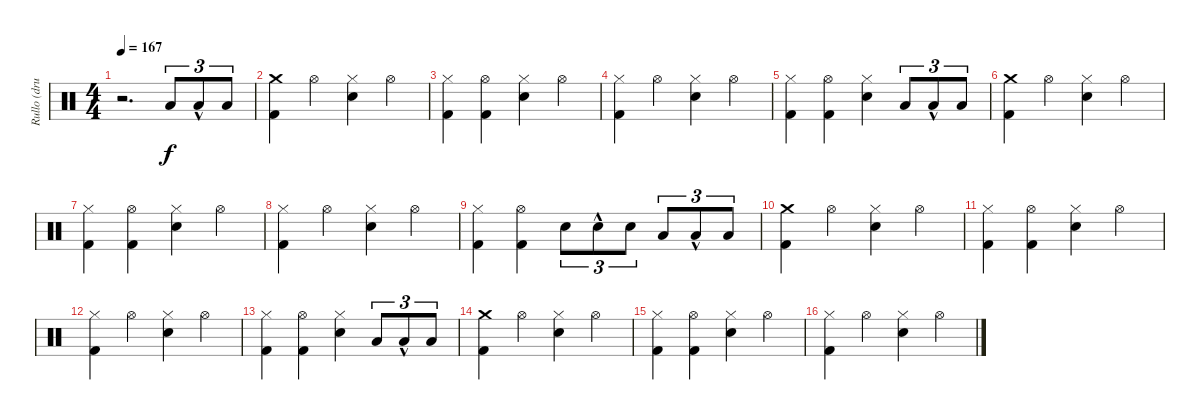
\track ("Rullo (drums)" "Rullo (dru") {instrument percussion}
\staff {score}
\articulation defaults
\ts (4 4)
\tempo 167
\clef neutral
\ks c
r.2{d dy f} "Low Tom (hit)".8{tu (3 2)} "Low Tom (hit)"{hac}.8{tu (3 2)} "Low Tom (hit)".8{tu (3 2)} |
("Crash medium (hit)" "Kick (hit) 2").4 "Hi-Hat (open)".4 ("Hi-Hat (closed)" "Electric Snare (hit)").4 "Hi-Hat (open)".4 |
("Hi-Hat (closed)" "Kick (hit) 2").4 ("Hi-Hat (open)" "Kick (hit) 2").4 ("Hi-Hat (closed)" "Electric Snare (hit)").4 "Hi-Hat (open)".4 |
("Hi-Hat (closed)" "Kick (hit) 2").4 "Hi-Hat (open)".4 ("Hi-Hat (closed)" "Electric Snare (hit)").4 "Hi-Hat (open)".4 |
("Hi-Hat (closed)" "Kick (hit) 2").4 ("Hi-Hat (open)" "Kick (hit) 2").4 ("Hi-Hat (closed)" "Electric Snare (hit)").4 "Low Tom (hit)".8{tu (3 2)} "Low Tom (hit)"{hac}.8{tu (3 2)} "Low Tom (hit)".8{tu (3 2)} |
("Crash medium (hit)" "Kick (hit) 2").4 "Hi-Hat (open)".4 ("Hi-Hat (closed)" "Electric Snare (hit)").4 "Hi-Hat (open)".4 |
("Hi-Hat (closed)" "Kick (hit) 2").4 ("Hi-Hat (open)" "Kick (hit) 2").4 ("Hi-Hat (closed)" "Electric Snare (hit)").4 "Hi-Hat (open)".4 |
("Hi-Hat (closed)" "Kick (hit) 2").4 "Hi-Hat (open)".4 ("Hi-Hat (closed)" "Electric Snare (hit)").4 "Hi-Hat (open)".4 |
("Hi-Hat (closed)" "Kick (hit) 2").4 ("Hi-Hat (open)" "Kick (hit) 2").4 "Electric Snare (hit)".8{tu (3 2)} "Electric Snare (hit)"{hac}.8{tu (3 2)} "Electric Snare (hit)".8{tu (3 2)} "Low Tom (hit)".8{tu (3 2)} "Low Tom (hit)"{hac}.8{tu (3 2)} "Low Tom (hit)".8{tu (3 2)} |
("Crash medium (hit)" "Kick (hit) 2").4 "Hi-Hat (open)".4 ("Hi-Hat (closed)" "Electric Snare (hit)").4 "Hi-Hat (open)".4 |
("Hi-Hat (closed)" "Kick (hit) 2").4 ("Hi-Hat (open)" "Kick (hit) 2").4 ("Hi-Hat (closed)" "Electric Snare (hit)").4 "Hi-Hat (open)".4 |
("Hi-Hat (closed)" "Kick (hit) 2").4 "Hi-Hat (open)".4 ("Hi-Hat (closed)" "Electric Snare (hit)").4 "Hi-Hat (open)".4 |
("Hi-Hat (closed)" "Kick (hit) 2").4 ("Hi-Hat (open)" "Kick (hit) 2").4 ("Hi-Hat (closed)" "Electric Snare (hit)").4 "Low Tom (hit)".8{tu (3 2)} "Low Tom (hit)"{hac}.8{tu (3 2)} "Low Tom (hit)".8{tu (3 2)} |
("Crash medium (hit)" "Kick (hit) 2").4 "Hi-Hat (open)".4 ("Hi-Hat (closed)" "Electric Snare (hit)").4 "Hi-Hat (open)".4 |
("Hi-Hat (closed)" "Kick (hit) 2").4 ("Hi-Hat (open)" "Kick (hit) 2").4 ("Hi-Hat (closed)" "Electric Snare (hit)").4 "Hi-Hat (open)".4 |
("Hi-Hat (closed)" "Kick (hit) 2").4 "Hi-Hat (open)".4 ("Hi-Hat (closed)" "Electric Snare (hit)").4 "Hi-Hat (open)".4
